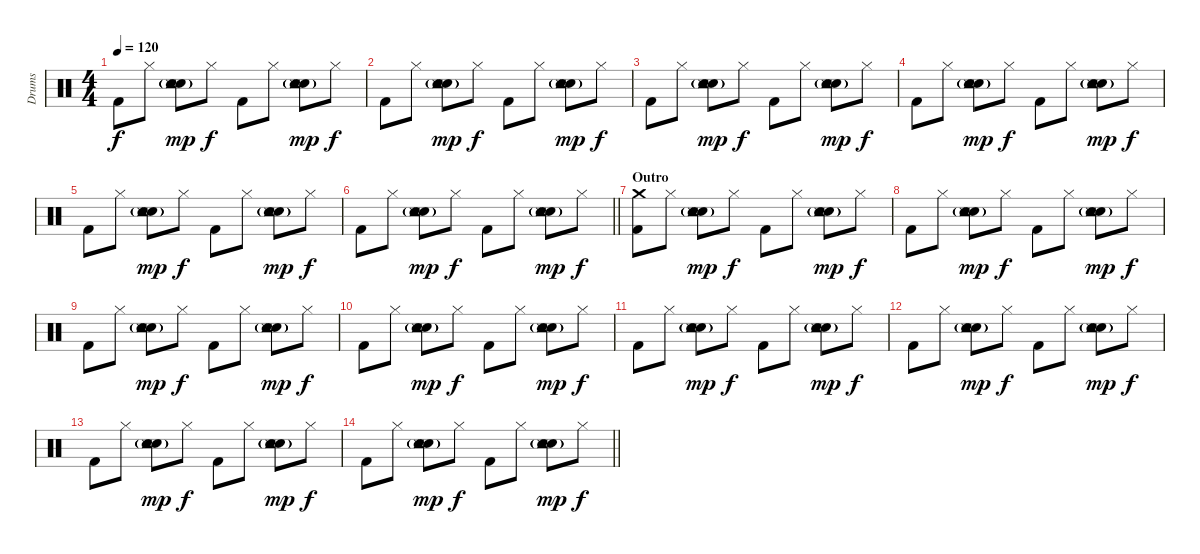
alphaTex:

\track ("Drums" "Drums") {instrument percussion}
\staff {score}
\articulation defaults
\ts (4 4)
\tempo 120
\clef neutral
\ks c "Kick (hit) 2".8{dy f} "Hi-Hat (closed)".8
("Snare (hit) 2"{g} "Tambourine (hit)"{g} "Electric Snare (hit)" "Snare (side stick) 3"{g}).8{dy mp} "Hi-Hat (closed)".8{dy f} "Kick (hit) 2".8 "Hi-Hat (closed)".8 ("Snare (hit) 2"{g} "Tambourine (hit)"{g} "Electric Snare (hit)" "Snare (side stick) 3"{g}).8{dy mp} "Hi-Hat (closed)".8{dy f} |
"Kick (hit) 2".8 "Hi-Hat (closed)".8 ("Snare (hit) 2"{g} "Tambourine (hit)"{g} "Electric Snare (hit)" "Snare (side stick) 3"{g}).8{dy mp} "Hi-Hat (closed)".8{dy f} "Kick (hit) 2".8 "Hi-Hat (closed)".8 ("Snare (hit) 2"{g} "Tambourine (hit)"{g} "Electric Snare (hit)" "Snare (side stick) 3"{g}).8{dy mp} "Hi-Hat (closed)".8{dy f} |
"Kick (hit) 2".8 "Hi-Hat (closed)".8 ("Snare (hit) 2"{g} "Tambourine (hit)"{g} "Electric Snare (hit)" "Snare (side stick) 3"{g}).8{dy mp} "Hi-Hat (closed)".8{dy f} "Kick (hit) 2".8 "Hi-Hat (closed)".8 ("Snare (hit) 2"{g} "Tambourine (hit)"{g} "Electric Snare (hit)" "Snare (side stick) 3"{g}).8{dy mp} "Hi-Hat (closed)".8{dy f} |
"Kick (hit) 2".8 "Hi-Hat (closed)".8 ("Snare (hit) 2"{g} "Tambourine (hit)"{g} "Electric Snare (hit)" "Snare (side stick) 3"{g}).8{dy mp} "Hi-Hat (closed)".8{dy f} "Kick (hit) 2".8 "Hi-Hat (closed)".8 ("Snare (hit) 2"{g} "Tambourine (hit)"{g} "Electric Snare (hit)" "Snare (side stick) 3"{g}).8{dy mp} "Hi-Hat (closed)".8{dy f} |
"Kick (hit) 2".8 "Hi-Hat (closed)".8 ("Snare (hit) 2"{g} "Tambourine (hit)"{g} "Electric Snare (hit)" "Snare (side stick) 3"{g}).8{dy mp} "Hi-Hat (closed)".8{dy f} "Kick (hit) 2".8 "Hi-Hat (closed)".8 ("Snare (hit) 2"{g} "Tambourine (hit)"{g} "Electric Snare (hit)" "Snare (side stick) 3"{g}).8{dy mp} "Hi-Hat (closed)".8{dy f} |
\barLineRight lightlight "Kick (hit) 2".8 "Hi-Hat (closed)".8
("Snare (hit) 2"{g} "Tambourine (hit)"{g} "Electric Snare (hit)" "Snare (side stick) 3"{g}).8{dy mp} "Hi-Hat (closed)".8{dy f} "Kick (hit) 2".8 "Hi-Hat (closed)".8 ("Snare (hit) 2"{g} "Tambourine (hit)"{g} "Electric Snare (hit)" "Snare (side stick) 3"{g}).8{dy mp} "Hi-Hat (closed)".8{dy f} |
\section ("" "Outro")
("Crash medium (hit)" "Kick (hit) 2").8 "Hi-Hat (closed)".8 ("Snare (hit) 2"{g} "Tambourine (hit)"{g} "Electric Snare (hit)" "Snare (side stick) 3"{g}).8{dy mp} "Hi-Hat (closed)".8{dy f} "Kick (hit) 2".8 "Hi-Hat (closed)".8 ("Snare (hit) 2"{g} "Tambourine (hit)"{g} "Electric Snare (hit)" "Snare (side stick) 3"{g}).8{dy mp} "Hi-Hat (closed)".8{dy f} |
"Kick (hit) 2".8 "Hi-Hat (closed)".8 ("Snare (hit) 2"{g} "Tambourine (hit)"{g} "Electric Snare (hit)" "Snare (side stick) 3"{g}).8{dy mp} "Hi-Hat (closed)".8{dy f} "Kick (hit) 2".8 "Hi-Hat (closed)".8 ("Snare (hit) 2"{g} "Tambourine (hit)"{g} "Electric Snare (hit)" "Snare (side stick) 3"{g}).8{dy mp} "Hi-Hat (closed)".8{dy f} |
"Kick (hit) 2".8 "Hi-Hat (closed)".8 ("Snare (hit) 2"{g} "Tambourine (hit)"{g} "Electric Snare (hit)" "Snare (side stick) 3"{g}).8{dy mp} "Hi-Hat (closed)".8{dy f} "Kick (hit) 2".8 "Hi-Hat (closed)".8 ("Snare (hit) 2"{g} "Tambourine (hit)"{g} "Electric Snare (hit)" "Snare (side stick) 3"{g}).8{dy mp} "Hi-Hat (closed)".8{dy f} |
"Kick (hit) 2".8 "Hi-Hat (closed)".8 ("Snare (hit) 2"{g} "Tambourine (hit)"{g} "Electric Snare (hit)" "Snare (side stick) 3"{g}).8{dy mp} "Hi-Hat (closed)".8{dy f} "Kick (hit) 2".8 "Hi-Hat (closed)".8 ("Snare (hit) 2"{g} "Tambourine (hit)"{g} "Electric Snare (hit)" "Snare (side stick) 3"{g}).8{dy mp} "Hi-Hat (closed)".8{dy f} |
"Kick (hit) 2".8 "Hi-Hat (closed)".8 ("Snare (hit) 2"{g} "Tambourine (hit)"{g} "Electric Snare (hit)" "Snare (side stick) 3"{g}).8{dy mp} "Hi-Hat (closed)".8{dy f} "Kick (hit) 2".8 "Hi-Hat (closed)".8 ("Snare (hit) 2"{g} "Tambourine (hit)"{g} "Electric Snare (hit)" "Snare (side stick) 3"{g}).8{dy mp} "Hi-Hat (closed)".8{dy f} |
"Kick (hit) 2".8 "Hi-Hat (closed)".8 ("Snare (hit) 2"{g} "Tambourine (hit)"{g} "Electric Snare (hit)" "Snare (side stick) 3"{g}).8{dy mp} "Hi-Hat (closed)".8{dy f} "Kick (hit) 2".8 "Hi-Hat (closed)".8 ("Snare (hit) 2"{g} "Tambourine (hit)"{g} "Electric Snare (hit)" "Snare (side stick) 3"{g}).8{dy mp} "Hi-Hat (closed)".8{dy f} |
"Kick (hit) 2".8 "Hi-Hat (closed)".8 ("Snare (hit) 2"{g} "Tambourine (hit)"{g} "Electric Snare (hit)" "Snare (side stick) 3"{g}).8{dy mp} "Hi-Hat (closed)".8{dy f} "Kick (hit) 2".8 "Hi-Hat (closed)".8 ("Snare (hit) 2"{g} "Tambourine (hit)"{g} "Electric Snare (hit)" "Snare (side stick) 3"{g}).8{dy mp} "Hi-Hat (closed)".8{dy f} |
\barLineRight lightlight "Kick (hit) 2".8 "Hi-Hat (closed)".8
("Snare (hit) 2"{g} "Tambourine (hit)"{g} "Electric Snare (hit)" "Snare (side stick) 3"{g}).8{dy mp} "Hi-Hat (closed)".8{dy f} "Kick (hit) 2".8 "Hi-Hat (closed)".8 ("Snare (hit) 2"{g} "Tambourine (hit)"{g} "Electric Snare (hit)" "Snare (side stick) 3"{g}).8{dy mp} "Hi-Hat (closed)".8{dy f}
